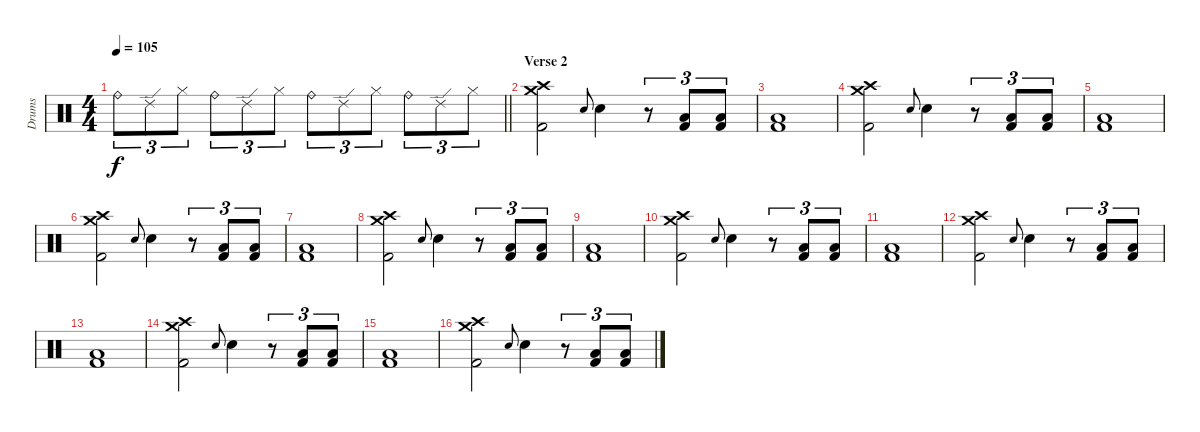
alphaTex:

\track ("Drums" "Drums") {instrument percussion}
\staff {score}
\articulation defaults
\ts (4 4)
\tempo 105
\clef neutral
\barLineRight lightlight
\ks c "Ride (bell)".8{tu (3 2) dy f} "Ride (edge) 2".8{tu (3 2)} "Hi-Hat (closed)".8{tu (3 2)} "Ride (bell)".8{tu (3 2)} "Ride (edge) 2".8{tu (3 2)} "Hi-Hat (closed)".8{tu (3 2)} "Ride (bell)".8{tu (3 2)} "Ride (edge) 2".8{tu (3 2)} "Hi-Hat (closed)".8{tu (3 2)} "Ride (bell)".8{tu (3 2)} "Ride (edge) 2".8{tu (3 2)} "Hi-Hat (closed)".8{tu (3 2)}
|
\section ("" "Verse 2")
("Crash high (hit)" "Crash medium (hit)" "Kick (hit) 2").2 "Electric Snare (hit)".8{gr onbeat} "Electric Snare (hit)".4 r.8{tu (3 2)} ("Low Floor Tom (hit)" "Kick (hit) 2").8{tu (3 2)} ("Low Floor Tom (hit)" "Kick (hit) 2").8{tu (3 2)} |
("Low Floor Tom (hit)" "Kick (hit) 2").1 |
("Crash high (hit)" "Crash medium (hit)" "Kick (hit) 2").2 "Electric Snare (hit)".8{gr onbeat} "Electric Snare (hit)".4 r.8{tu (3 2)} ("Low Floor Tom (hit)" "Kick (hit) 2").8{tu (3 2)} ("Low Floor Tom (hit)" "Kick (hit) 2").8{tu (3 2)} |
("Low Floor Tom (hit)" "Kick (hit) 2").1 |
("Crash high (hit)" "Crash medium (hit)" "Kick (hit) 2").2 "Electric Snare (hit)".8{gr onbeat} "Electric Snare (hit)".4 r.8{tu (3 2)} ("Low Floor Tom (hit)" "Kick (hit) 2").8{tu (3 2)} ("Low Floor Tom (hit)" "Kick (hit) 2").8{tu (3 2)} |
("Low Floor Tom (hit)" "Kick (hit) 2").1 |
("Crash high (hit)" "Crash medium (hit)" "Kick (hit) 2").2 "Electric Snare (hit)".8{gr onbeat} "Electric Snare (hit)".4 r.8{tu (3 2)} ("Low Floor Tom (hit)" "Kick (hit) 2").8{tu (3 2)} ("Low Floor Tom (hit)" "Kick (hit) 2").8{tu (3 2)} |
("Low Floor Tom (hit)" "Kick (hit) 2").1 |
("Crash high (hit)" "Crash medium (hit)" "Kick (hit) 2").2 "Electric Snare (hit)".8{gr onbeat} "Electric Snare (hit)".4 r.8{tu (3 2)} ("Low Floor Tom (hit)" "Kick (hit) 2").8{tu (3 2)} ("Low Floor Tom (hit)" "Kick (hit) 2").8{tu (3 2)} |
("Low Floor Tom (hit)" "Kick (hit) 2").1 |
("Crash high (hit)" "Crash medium (hit)" "Kick (hit) 2").2 "Electric Snare (hit)".8{gr onbeat} "Electric Snare (hit)".4 r.8{tu (3 2)} ("Low Floor Tom (hit)" "Kick (hit) 2").8{tu (3 2)} ("Low Floor Tom (hit)" "Kick (hit) 2").8{tu (3 2)} |
("Low Floor Tom (hit)" "Kick (hit) 2").1 |
("Crash high (hit)" "Crash medium (hit)" "Kick (hit) 2").2 "Electric Snare (hit)".8{gr onbeat} "Electric Snare (hit)".4 r.8{tu (3 2)} ("Low Floor Tom (hit)" "Kick (hit) 2").8{tu (3 2)} ("Low Floor Tom (hit)" "Kick (hit) 2").8{tu (3 2)} |
("Low Floor Tom (hit)" "Kick (hit) 2").1 |
("Crash high (hit)" "Crash medium (hit)" "Kick (hit) 2").2 "Electric Snare (hit)".8{gr onbeat} "Electric Snare (hit)".4 r.8{tu (3 2)} ("Low Floor Tom (hit)" "Kick (hit) 2").8{tu (3 2)} ("Low Floor Tom (hit)" "Kick (hit) 2").8{tu (3 2)}
